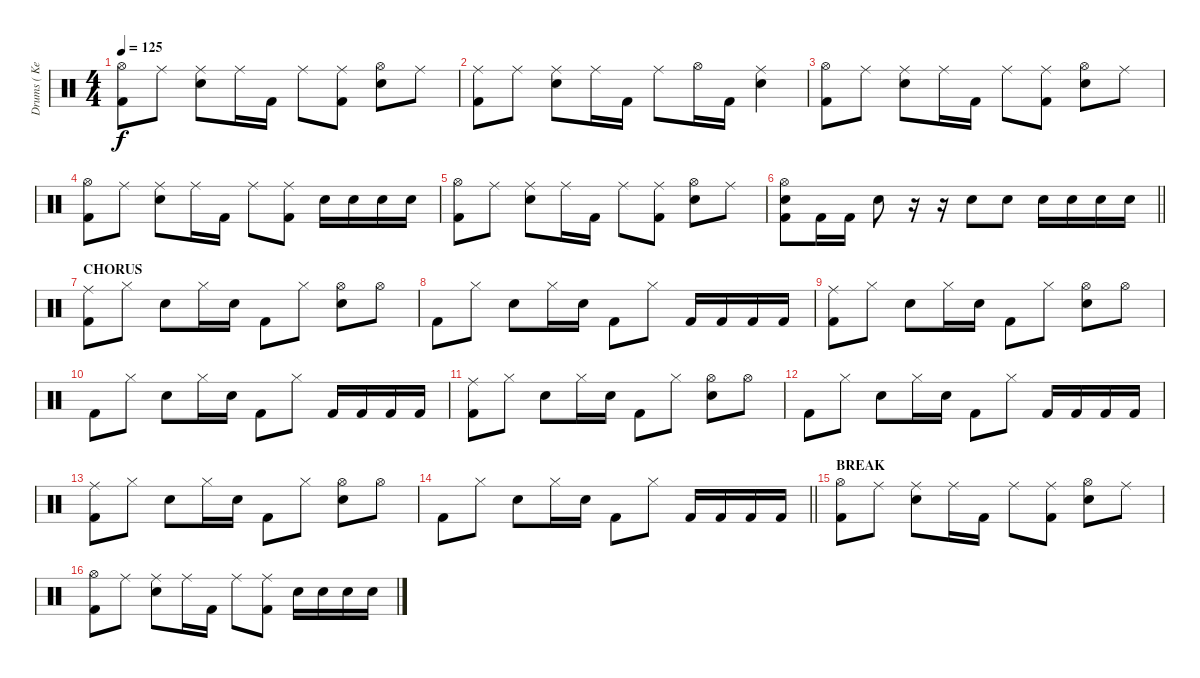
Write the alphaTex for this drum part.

\track ("Drums ( Ken Jay )" "Drums ( Ke") {instrument percussion}
\staff {score}
\articulation defaults
\ts (4 4)
\tempo 125
\clef neutral
\ks c
("Hi-Hat (open)" "Kick (hit) 2").8{dy f} "Ride (middle)".8 ("Ride (middle)" "Snare (hit) 2").8 "Ride (middle)".16 "Kick (hit) 2".16 "Ride (middle)".8 ("Ride (middle)" "Kick (hit) 2").8 ("Hi-Hat (open)" "Snare (hit) 2").8 "Ride (middle)".8 |
("Ride (middle)" "Kick (hit) 2").8 "Ride (middle)".8 ("Ride (middle)" "Snare (hit) 2").8 "Ride (middle)".16 "Kick (hit) 2".16 "Ride (middle)".8 "Hi-Hat (open)".16 "Kick (hit) 2".16 ("Ride (middle)" "Snare (hit) 2").4 |
("Hi-Hat (open)" "Kick (hit) 2").8 "Ride (middle)".8 ("Ride (middle)" "Snare (hit) 2").8 "Ride (middle)".16 "Kick (hit) 2".16 "Ride (middle)".8 ("Ride (middle)" "Kick (hit) 2").8 ("Hi-Hat (open)" "Snare (hit) 2").8 "Ride (middle)".8 |
("Hi-Hat (open)" "Kick (hit) 2").8 "Ride (middle)".8 ("Ride (middle)" "Snare (hit) 2").8 "Ride (middle)".16 "Kick (hit) 2".16 "Ride (middle)".8 ("Ride (middle)" "Kick (hit) 2").8 "Snare (hit) 2".16 "Snare (hit) 2".16 "Snare (hit) 2".16 "Snare (hit) 2".16 |
("Hi-Hat (open)" "Kick (hit) 2").8 "Ride (middle)".8 ("Ride (middle)" "Snare (hit) 2").8 "Ride (middle)".16 "Kick (hit) 2".16 "Ride (middle)".8 ("Ride (middle)" "Kick (hit) 2").8 ("Hi-Hat (open)" "Snare (hit) 2").8 "Ride (middle)".8 |
\barLineRight lightlight
("Hi-Hat (open)" "Snare (hit) 2" "Kick (hit) 2").8 "Kick (hit) 2".16 "Kick (hit) 2".16 "Snare (hit) 2".8 r.16 r.16 "Snare (hit) 2".8 "Snare (hit) 2".8 "Snare (hit) 2".16 "Snare (hit) 2".16 "Snare (hit) 2".16 "Snare (hit) 2".16 |
\section ("" "CHORUS")
("Ride (middle)" "Kick (hit) 2").8 "Hi-Hat (closed)".8 "Snare (hit) 2".8 "Hi-Hat (closed)".16 "Snare (hit) 2".16 "Kick (hit) 2".8 "Hi-Hat (closed)".8 ("Hi-Hat (open)" "Snare (hit) 2").8 "Hi-Hat (open)".8 |
"Kick (hit) 2".8 "Hi-Hat (closed)".8 "Snare (hit) 2".8 "Hi-Hat (closed)".16 "Snare (hit) 2".16 "Kick (hit) 2".8 "Hi-Hat (closed)".8 "Kick (hit) 2".16 "Kick (hit) 2".16 "Kick (hit) 2".16 "Kick (hit) 2".16 |
("Ride (middle)" "Kick (hit) 2").8 "Hi-Hat (closed)".8 "Snare (hit) 2".8 "Hi-Hat (closed)".16 "Snare (hit) 2".16 "Kick (hit) 2".8 "Hi-Hat (closed)".8 ("Hi-Hat (open)" "Snare (hit) 2").8 "Hi-Hat (open)".8 |
"Kick (hit) 2".8 "Hi-Hat (closed)".8 "Snare (hit) 2".8 "Hi-Hat (closed)".16 "Snare (hit) 2".16 "Kick (hit) 2".8 "Hi-Hat (closed)".8 "Kick (hit) 2".16 "Kick (hit) 2".16 "Kick (hit) 2".16 "Kick (hit) 2".16 |
("Ride (middle)" "Kick (hit) 2").8 "Hi-Hat (closed)".8 "Snare (hit) 2".8 "Hi-Hat (closed)".16 "Snare (hit) 2".16 "Kick (hit) 2".8 "Hi-Hat (closed)".8 ("Hi-Hat (open)" "Snare (hit) 2").8 "Hi-Hat (open)".8 |
"Kick (hit) 2".8 "Hi-Hat (closed)".8 "Snare (hit) 2".8 "Hi-Hat (closed)".16 "Snare (hit) 2".16 "Kick (hit) 2".8 "Hi-Hat (closed)".8 "Kick (hit) 2".16 "Kick (hit) 2".16 "Kick (hit) 2".16 "Kick (hit) 2".16 |
("Ride (middle)" "Kick (hit) 2").8 "Hi-Hat (closed)".8 "Snare (hit) 2".8 "Hi-Hat (closed)".16 "Snare (hit) 2".16 "Kick (hit) 2".8 "Hi-Hat (closed)".8 ("Hi-Hat (open)" "Snare (hit) 2").8 "Hi-Hat (open)".8 |
\barLineRight lightlight "Kick (hit) 2".8 "Hi-Hat (closed)".8 "Snare (hit) 2".8 "Hi-Hat (closed)".16 "Snare (hit) 2".16 "Kick (hit) 2".8 "Hi-Hat (closed)".8 "Kick (hit) 2".16 "Kick (hit) 2".16 "Kick (hit) 2".16 "Kick (hit) 2".16
|
\section ("" "BREAK")
("Hi-Hat (open)" "Kick (hit) 2").8 "Ride (middle)".8 ("Ride (middle)" "Snare (hit) 2").8 "Ride (middle)".16 "Kick (hit) 2".16 "Ride (middle)".8 ("Ride (middle)" "Kick (hit) 2").8 ("Hi-Hat (open)" "Snare (hit) 2").8 "Ride (middle)".8 |
("Hi-Hat (open)" "Kick (hit) 2").8 "Ride (middle)".8 ("Ride (middle)" "Snare (hit) 2").8 "Ride (middle)".16 "Kick (hit) 2".16 "Ride (middle)".8 ("Ride (middle)" "Kick (hit) 2").8 "Snare (hit) 2".16 "Snare (hit) 2".16 "Snare (hit) 2".16 "Snare (hit) 2".16
